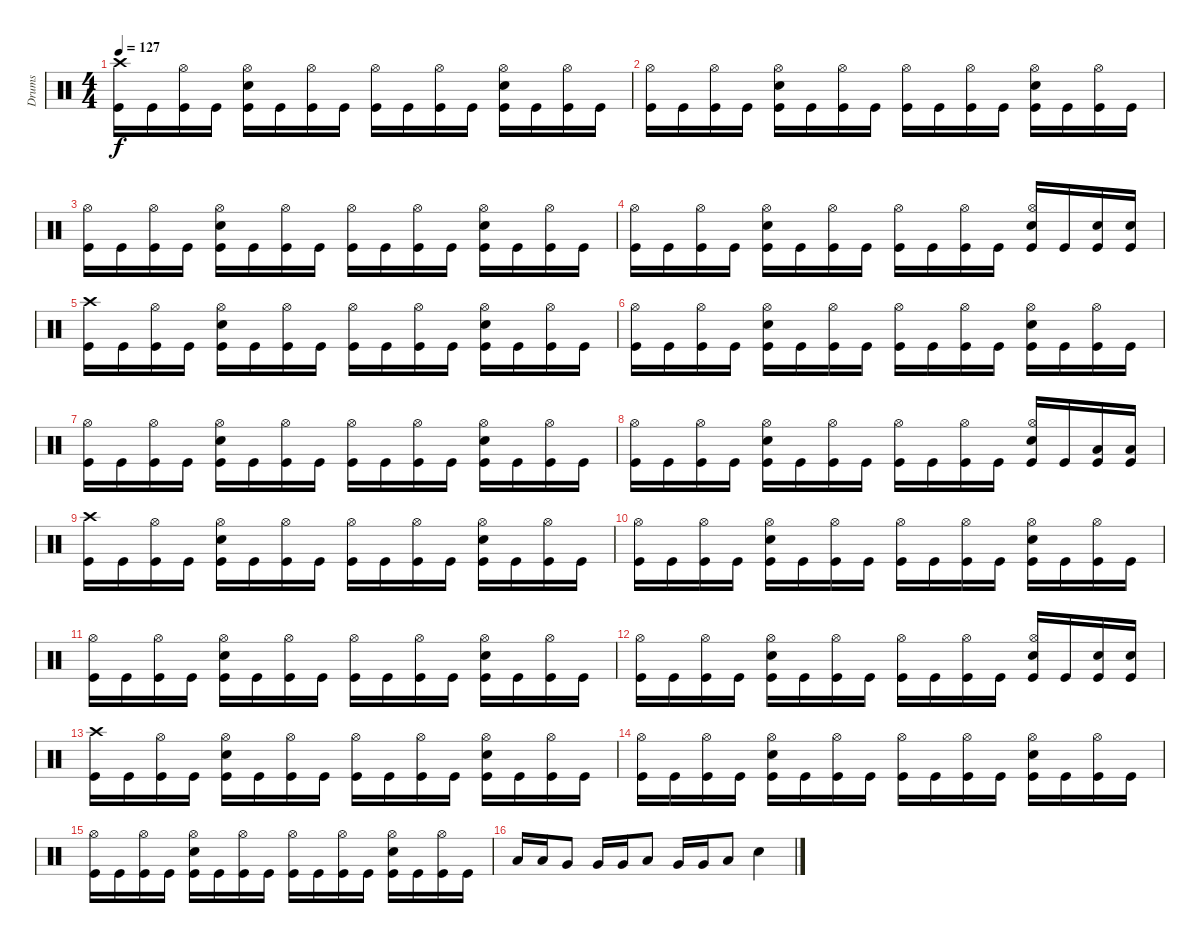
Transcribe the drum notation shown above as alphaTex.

\track ("Drums" "Drums") {instrument percussion}
\staff {score}
\articulation defaults
\ts (4 4)
\tempo 127
\clef neutral
\ks c
("Crash high (hit)" "Kick (hit)").16{dy f} "Kick (hit)".16 ("Hi-Hat (open)" "Kick (hit)").16 "Kick (hit)".16 ("Hi-Hat (open)" "Snare (hit) 2" "Kick (hit)").16 "Kick (hit)".16 ("Hi-Hat (open)" "Kick (hit)").16 "Kick (hit)".16 ("Hi-Hat (open)" "Kick (hit)").16 "Kick (hit)".16 ("Hi-Hat (open)" "Kick (hit)").16 "Kick (hit)".16 ("Hi-Hat (open)" "Snare (hit) 2" "Kick (hit)").16 "Kick (hit)".16 ("Hi-Hat (open)" "Kick (hit)").16 "Kick (hit)".16 |
("Hi-Hat (open)" "Kick (hit)").16 "Kick (hit)".16 ("Hi-Hat (open)" "Kick (hit)").16 "Kick (hit)".16 ("Hi-Hat (open)" "Snare (hit) 2" "Kick (hit)").16 "Kick (hit)".16 ("Hi-Hat (open)" "Kick (hit)").16 "Kick (hit)".16 ("Hi-Hat (open)" "Kick (hit)").16 "Kick (hit)".16 ("Hi-Hat (open)" "Kick (hit)").16 "Kick (hit)".16 ("Hi-Hat (open)" "Snare (hit) 2" "Kick (hit)").16 "Kick (hit)".16 ("Hi-Hat (open)" "Kick (hit)").16 "Kick (hit)".16 |
("Hi-Hat (open)" "Kick (hit)").16 "Kick (hit)".16 ("Hi-Hat (open)" "Kick (hit)").16 "Kick (hit)".16 ("Hi-Hat (open)" "Snare (hit) 2" "Kick (hit)").16 "Kick (hit)".16 ("Hi-Hat (open)" "Kick (hit)").16 "Kick (hit)".16 ("Hi-Hat (open)" "Kick (hit)").16 "Kick (hit)".16 ("Hi-Hat (open)" "Kick (hit)").16 "Kick (hit)".16 ("Hi-Hat (open)" "Snare (hit) 2" "Kick (hit)").16 "Kick (hit)".16 ("Hi-Hat (open)" "Kick (hit)").16 "Kick (hit)".16 |
("Hi-Hat (open)" "Kick (hit)").16 "Kick (hit)".16 ("Hi-Hat (open)" "Kick (hit)").16 "Kick (hit)".16 ("Hi-Hat (open)" "Snare (hit) 2" "Kick (hit)").16 "Kick (hit)".16 ("Hi-Hat (open)" "Kick (hit)").16 "Kick (hit)".16 ("Hi-Hat (open)" "Kick (hit)").16 "Kick (hit)".16 ("Hi-Hat (open)" "Kick (hit)").16 "Kick (hit)".16 ("Hi-Hat (open)" "Snare (hit) 2" "Kick (hit)").16 "Kick (hit)".16 ("Snare (hit) 2" "Kick (hit)").16 ("Snare (hit) 2" "Kick (hit)").16 |
("Crash high (hit)" "Kick (hit)").16 "Kick (hit)".16 ("Hi-Hat (open)" "Kick (hit)").16 "Kick (hit)".16 ("Hi-Hat (open)" "Snare (hit) 2" "Kick (hit)").16 "Kick (hit)".16 ("Hi-Hat (open)" "Kick (hit)").16 "Kick (hit)".16 ("Hi-Hat (open)" "Kick (hit)").16 "Kick (hit)".16 ("Hi-Hat (open)" "Kick (hit)").16 "Kick (hit)".16 ("Hi-Hat (open)" "Snare (hit) 2" "Kick (hit)").16 "Kick (hit)".16 ("Hi-Hat (open)" "Kick (hit)").16 "Kick (hit)".16 |
("Hi-Hat (open)" "Kick (hit)").16 "Kick (hit)".16 ("Hi-Hat (open)" "Kick (hit)").16 "Kick (hit)".16 ("Hi-Hat (open)" "Snare (hit) 2" "Kick (hit)").16 "Kick (hit)".16 ("Hi-Hat (open)" "Kick (hit)").16 "Kick (hit)".16 ("Hi-Hat (open)" "Kick (hit)").16 "Kick (hit)".16 ("Hi-Hat (open)" "Kick (hit)").16 "Kick (hit)".16 ("Hi-Hat (open)" "Snare (hit) 2" "Kick (hit)").16 "Kick (hit)".16 ("Hi-Hat (open)" "Kick (hit)").16 "Kick (hit)".16 |
("Hi-Hat (open)" "Kick (hit)").16 "Kick (hit)".16 ("Hi-Hat (open)" "Kick (hit)").16 "Kick (hit)".16 ("Hi-Hat (open)" "Snare (hit) 2" "Kick (hit)").16 "Kick (hit)".16 ("Hi-Hat (open)" "Kick (hit)").16 "Kick (hit)".16 ("Hi-Hat (open)" "Kick (hit)").16 "Kick (hit)".16 ("Hi-Hat (open)" "Kick (hit)").16 "Kick (hit)".16 ("Hi-Hat (open)" "Snare (hit) 2" "Kick (hit)").16 "Kick (hit)".16 ("Hi-Hat (open)" "Kick (hit)").16 "Kick (hit)".16 |
("Hi-Hat (open)" "Kick (hit)").16 "Kick (hit)".16 ("Hi-Hat (open)" "Kick (hit)").16 "Kick (hit)".16 ("Hi-Hat (open)" "Snare (hit) 2" "Kick (hit)").16 "Kick (hit)".16 ("Hi-Hat (open)" "Kick (hit)").16 "Kick (hit)".16 ("Hi-Hat (open)" "Kick (hit)").16 "Kick (hit)".16 ("Hi-Hat (open)" "Kick (hit)").16 "Kick (hit)".16 ("Hi-Hat (open)" "Snare (hit) 2" "Kick (hit)").16 "Kick (hit)".16 ("Low Floor Tom (hit)" "Kick (hit)").16 ("Low Floor Tom (hit)" "Kick (hit)").16 |
("Crash high (hit)" "Kick (hit)").16 "Kick (hit)".16 ("Hi-Hat (open)" "Kick (hit)").16 "Kick (hit)".16 ("Hi-Hat (open)" "Snare (hit) 2" "Kick (hit)").16 "Kick (hit)".16 ("Hi-Hat (open)" "Kick (hit)").16 "Kick (hit)".16 ("Hi-Hat (open)" "Kick (hit)").16 "Kick (hit)".16 ("Hi-Hat (open)" "Kick (hit)").16 "Kick (hit)".16 ("Hi-Hat (open)" "Snare (hit) 2" "Kick (hit)").16 "Kick (hit)".16 ("Hi-Hat (open)" "Kick (hit)").16 "Kick (hit)".16 |
("Hi-Hat (open)" "Kick (hit)").16 "Kick (hit)".16 ("Hi-Hat (open)" "Kick (hit)").16 "Kick (hit)".16 ("Hi-Hat (open)" "Snare (hit) 2" "Kick (hit)").16 "Kick (hit)".16 ("Hi-Hat (open)" "Kick (hit)").16 "Kick (hit)".16 ("Hi-Hat (open)" "Kick (hit)").16 "Kick (hit)".16 ("Hi-Hat (open)" "Kick (hit)").16 "Kick (hit)".16 ("Hi-Hat (open)" "Snare (hit) 2" "Kick (hit)").16 "Kick (hit)".16 ("Hi-Hat (open)" "Kick (hit)").16 "Kick (hit)".16 |
("Hi-Hat (open)" "Kick (hit)").16 "Kick (hit)".16 ("Hi-Hat (open)" "Kick (hit)").16 "Kick (hit)".16 ("Hi-Hat (open)" "Snare (hit) 2" "Kick (hit)").16 "Kick (hit)".16 ("Hi-Hat (open)" "Kick (hit)").16 "Kick (hit)".16 ("Hi-Hat (open)" "Kick (hit)").16 "Kick (hit)".16 ("Hi-Hat (open)" "Kick (hit)").16 "Kick (hit)".16 ("Hi-Hat (open)" "Snare (hit) 2" "Kick (hit)").16 "Kick (hit)".16 ("Hi-Hat (open)" "Kick (hit)").16 "Kick (hit)".16 |
("Hi-Hat (open)" "Kick (hit)").16 "Kick (hit)".16 ("Hi-Hat (open)" "Kick (hit)").16 "Kick (hit)".16 ("Hi-Hat (open)" "Snare (hit) 2" "Kick (hit)").16 "Kick (hit)".16 ("Hi-Hat (open)" "Kick (hit)").16 "Kick (hit)".16 ("Hi-Hat (open)" "Kick (hit)").16 "Kick (hit)".16 ("Hi-Hat (open)" "Kick (hit)").16 "Kick (hit)".16 ("Hi-Hat (open)" "Snare (hit) 2" "Kick (hit)").16 "Kick (hit)".16 ("Snare (hit) 2" "Kick (hit)").16 ("Snare (hit) 2" "Kick (hit)").16 |
("Crash high (hit)" "Kick (hit)").16 "Kick (hit)".16 ("Hi-Hat (open)" "Kick (hit)").16 "Kick (hit)".16 ("Hi-Hat (open)" "Snare (hit) 2" "Kick (hit)").16 "Kick (hit)".16 ("Hi-Hat (open)" "Kick (hit)").16 "Kick (hit)".16 ("Hi-Hat (open)" "Kick (hit)").16 "Kick (hit)".16 ("Hi-Hat (open)" "Kick (hit)").16 "Kick (hit)".16 ("Hi-Hat (open)" "Snare (hit) 2" "Kick (hit)").16 "Kick (hit)".16 ("Hi-Hat (open)" "Kick (hit)").16 "Kick (hit)".16 |
("Hi-Hat (open)" "Kick (hit)").16 "Kick (hit)".16 ("Hi-Hat (open)" "Kick (hit)").16 "Kick (hit)".16 ("Hi-Hat (open)" "Snare (hit) 2" "Kick (hit)").16 "Kick (hit)".16 ("Hi-Hat (open)" "Kick (hit)").16 "Kick (hit)".16 ("Hi-Hat (open)" "Kick (hit)").16 "Kick (hit)".16 ("Hi-Hat (open)" "Kick (hit)").16 "Kick (hit)".16 ("Hi-Hat (open)" "Snare (hit) 2" "Kick (hit)").16 "Kick (hit)".16 ("Hi-Hat (open)" "Kick (hit)").16 "Kick (hit)".16 |
("Hi-Hat (open)" "Kick (hit)").16 "Kick (hit)".16 ("Hi-Hat (open)" "Kick (hit)").16 "Kick (hit)".16 ("Hi-Hat (open)" "Snare (hit) 2" "Kick (hit)").16 "Kick (hit)".16 ("Hi-Hat (open)" "Kick (hit)").16 "Kick (hit)".16 ("Hi-Hat (open)" "Kick (hit)").16 "Kick (hit)".16 ("Hi-Hat (open)" "Kick (hit)").16 "Kick (hit)".16 ("Hi-Hat (open)" "Snare (hit) 2" "Kick (hit)").16 "Kick (hit)".16 ("Hi-Hat (open)" "Kick (hit)").16 "Kick (hit)".16 |
"Low Tom (hit)".16 "Low Tom (hit)".16 "Very Low Tom (hit)".8 "Very Low Tom (hit)".16 "Very Low Tom (hit)".16 "Low Floor Tom (hit)".8 "Very Low Tom (hit)".16 "Very Low Tom (hit)".16 "Low Floor Tom (hit)".8 "Snare (hit) 2".4
